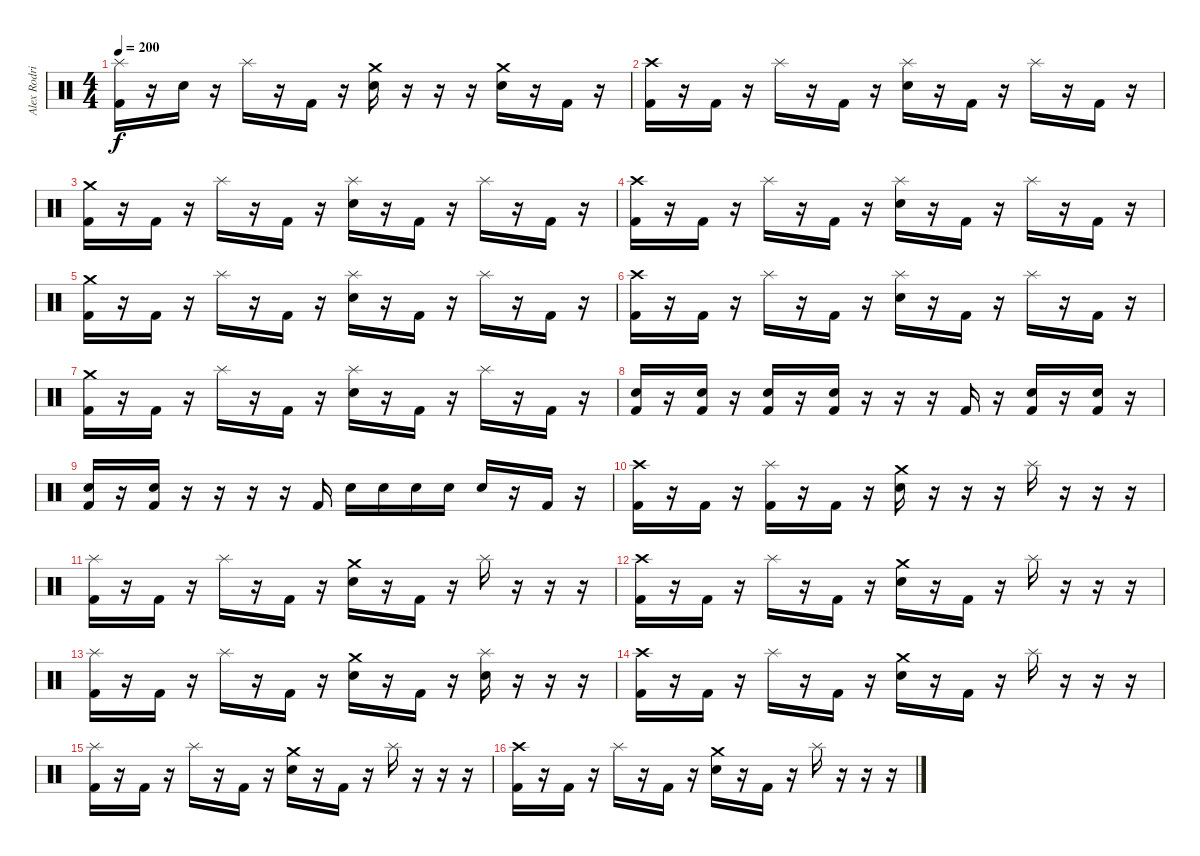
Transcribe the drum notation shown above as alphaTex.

\track ("Alex Rodriguez" "Alex Rodri") {instrument percussion}
\staff {score}
\articulation defaults
\ts (4 4)
\tempo 200
\clef neutral
\ks c
("Splash (hit)" "Kick (hit) 2").16{dy f} r.16 "Electric Snare (hit)".16 r.16 "Splash (hit)".16 r.16 "Kick (hit) 2".16 r.16 ("Crash medium (hit)" "Electric Snare (hit)").16 r.16 r.16 r.16 ("Crash medium (hit)" "Electric Snare (hit)").16 r.16 "Kick (hit) 2".16 r.16 |
("Crash high (hit)" "Kick (hit) 2").16 r.16 "Kick (hit) 2".16 r.16 "Splash (hit)".16 r.16 "Kick (hit) 2".16 r.16 ("Splash (hit)" "Electric Snare (hit)").16 r.16 "Kick (hit) 2".16 r.16 "Splash (hit)".16 r.16 "Kick (hit) 2".16 r.16 |
("Crash medium (hit)" "Kick (hit) 2").16 r.16 "Kick (hit) 2".16 r.16 "Splash (hit)".16 r.16 "Kick (hit) 2".16 r.16 ("Splash (hit)" "Electric Snare (hit)").16 r.16 "Kick (hit) 2".16 r.16 "Splash (hit)".16 r.16 "Kick (hit) 2".16 r.16 |
("Crash high (hit)" "Kick (hit) 2").16 r.16 "Kick (hit) 2".16 r.16 "Splash (hit)".16 r.16 "Kick (hit) 2".16 r.16 ("Splash (hit)" "Electric Snare (hit)").16 r.16 "Kick (hit) 2".16 r.16 "Splash (hit)".16 r.16 "Kick (hit) 2".16 r.16 |
("Crash medium (hit)" "Kick (hit) 2").16 r.16 "Kick (hit) 2".16 r.16 "Splash (hit)".16 r.16 "Kick (hit) 2".16 r.16 ("Splash (hit)" "Electric Snare (hit)").16 r.16 "Kick (hit) 2".16 r.16 "Splash (hit)".16 r.16 "Kick (hit) 2".16 r.16 |
("Crash high (hit)" "Kick (hit) 2").16 r.16 "Kick (hit) 2".16 r.16 "Splash (hit)".16 r.16 "Kick (hit) 2".16 r.16 ("Splash (hit)" "Electric Snare (hit)").16 r.16 "Kick (hit) 2".16 r.16 "Splash (hit)".16 r.16 "Kick (hit) 2".16 r.16 |
("Crash medium (hit)" "Kick (hit) 2").16 r.16 "Kick (hit) 2".16 r.16 "Splash (hit)".16 r.16 "Kick (hit) 2".16 r.16 ("Splash (hit)" "Electric Snare (hit)").16 r.16 "Kick (hit) 2".16 r.16 "Splash (hit)".16 r.16 "Kick (hit) 2".16 r.16 |
("Electric Snare (hit)" "Kick (hit) 2").16 r.16 ("Electric Snare (hit)" "Kick (hit) 2").16 r.16 ("Electric Snare (hit)" "Kick (hit) 2").16 r.16 ("Electric Snare (hit)" "Kick (hit) 2").16 r.16 r.16 r.16 "Kick (hit) 2".16 r.16 ("Electric Snare (hit)" "Kick (hit) 2").16 r.16 ("Electric Snare (hit)" "Kick (hit) 2").16 r.16 |
("Electric Snare (hit)" "Kick (hit) 2").16 r.16 ("Electric Snare (hit)" "Kick (hit) 2").16 r.16 r.16 r.16 r.16 "Kick (hit) 2".16 "Electric Snare (hit)".16 "Electric Snare (hit)".16 "Electric Snare (hit)".16 "Electric Snare (hit)".16 "Electric Snare (hit)".16 r.16 "Kick (hit) 2".16 r.16 |
("Crash high (hit)" "Kick (hit) 2").16 r.16 "Kick (hit) 2".16 r.16 ("Splash (hit)" "Kick (hit) 2").16 r.16 "Kick (hit) 2".16 r.16 ("Crash medium (hit)" "Electric Snare (hit)").16 r.16 r.16 r.16 "Splash (hit)".16 r.16 r.16 r.16 |
("Splash (hit)" "Kick (hit) 2").16 r.16 "Kick (hit) 2".16 r.16 "Splash (hit)".16 r.16 "Kick (hit) 2".16 r.16 ("Crash medium (hit)" "Electric Snare (hit)").16 r.16 "Kick (hit) 2".16 r.16 "Splash (hit)".16 r.16 r.16 r.16 |
("Crash high (hit)" "Kick (hit) 2").16 r.16 "Kick (hit) 2".16 r.16 "Splash (hit)".16 r.16 "Kick (hit) 2".16 r.16 ("Crash medium (hit)" "Electric Snare (hit)").16 r.16 "Kick (hit) 2".16 r.16 "Splash (hit)".16 r.16 r.16 r.16 |
("Splash (hit)" "Kick (hit) 2").16 r.16 "Kick (hit) 2".16 r.16 "Splash (hit)".16 r.16 "Kick (hit) 2".16 r.16 ("Crash medium (hit)" "Electric Snare (hit)").16 r.16 "Kick (hit) 2".16 r.16 ("Splash (hit)" "Electric Snare (hit)").16 r.16 r.16 r.16 |
("Crash high (hit)" "Kick (hit) 2").16 r.16 "Kick (hit) 2".16 r.16 "Splash (hit)".16 r.16 "Kick (hit) 2".16 r.16 ("Crash medium (hit)" "Electric Snare (hit)").16 r.16 "Kick (hit) 2".16 r.16 "Splash (hit)".16 r.16 r.16 r.16 |
("Splash (hit)" "Kick (hit) 2").16 r.16 "Kick (hit) 2".16 r.16 "Splash (hit)".16 r.16 "Kick (hit) 2".16 r.16 ("Crash medium (hit)" "Electric Snare (hit)").16 r.16 "Kick (hit) 2".16 r.16 "Splash (hit)".16 r.16 r.16 r.16 |
("Crash high (hit)" "Kick (hit) 2").16 r.16 "Kick (hit) 2".16 r.16 "Splash (hit)".16 r.16 "Kick (hit) 2".16 r.16 ("Crash medium (hit)" "Electric Snare (hit)").16 r.16 "Kick (hit) 2".16 r.16 "Splash (hit)".16 r.16 r.16 r.16
